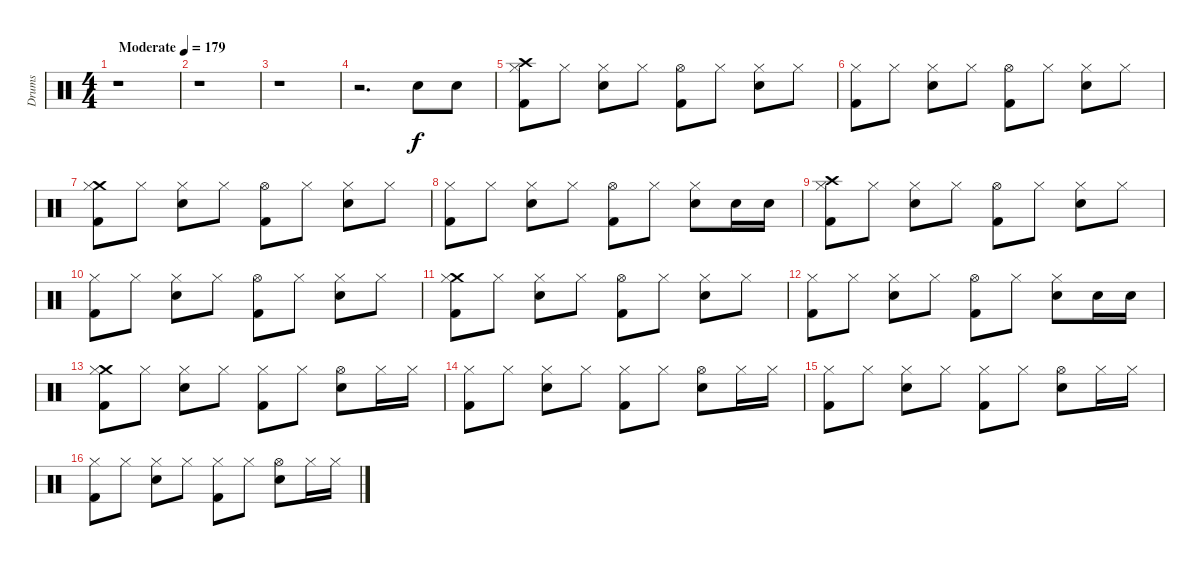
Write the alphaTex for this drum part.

\track ("Drums" "Drums") {instrument percussion}
\staff {score}
\articulation defaults
\ts (4 4)
\tempo (179 "Moderate")
\clef neutral
\ks c
r.1{dy f} |
r.1 |
r.1 |
r.2{d} "Electric Snare (hit)".8 "Electric Snare (hit)".8 |
("Kick (hit) 2" "Crash high (hit)" "Hi-Hat (closed)").8 "Hi-Hat (closed)".8 ("Electric Snare (hit)" "Hi-Hat (closed)").8 "Hi-Hat (closed)".8 ("Kick (hit) 2" "Hi-Hat (open)").8 "Hi-Hat (closed)".8 ("Electric Snare (hit)" "Hi-Hat (closed)").8 "Hi-Hat (closed)".8 |
("Kick (hit) 2" "Hi-Hat (closed)").8 "Hi-Hat (closed)".8 ("Electric Snare (hit)" "Hi-Hat (closed)").8 "Hi-Hat (closed)".8 ("Kick (hit) 2" "Hi-Hat (open)").8 "Hi-Hat (closed)".8 ("Electric Snare (hit)" "Hi-Hat (closed)").8 "Hi-Hat (closed)".8 |
("Kick (hit) 2" "Crash medium (hit)" "Hi-Hat (closed)").8 "Hi-Hat (closed)".8 ("Electric Snare (hit)" "Hi-Hat (closed)").8 "Hi-Hat (closed)".8 ("Kick (hit) 2" "Hi-Hat (open)").8 "Hi-Hat (closed)".8 ("Electric Snare (hit)" "Hi-Hat (closed)").8 "Hi-Hat (closed)".8 |
("Kick (hit) 2" "Hi-Hat (closed)").8 "Hi-Hat (closed)".8 ("Electric Snare (hit)" "Hi-Hat (closed)").8 "Hi-Hat (closed)".8 ("Kick (hit) 2" "Hi-Hat (open)").8 "Hi-Hat (closed)".8 ("Electric Snare (hit)" "Hi-Hat (closed)").8 "Electric Snare (hit)".16 "Electric Snare (hit)".16 |
("Kick (hit) 2" "Crash high (hit)" "Hi-Hat (closed)").8 "Hi-Hat (closed)".8 ("Electric Snare (hit)" "Hi-Hat (closed)").8 "Hi-Hat (closed)".8 ("Kick (hit) 2" "Hi-Hat (open)").8 "Hi-Hat (closed)".8 ("Electric Snare (hit)" "Hi-Hat (closed)").8 "Hi-Hat (closed)".8 |
("Kick (hit) 2" "Hi-Hat (closed)").8 "Hi-Hat (closed)".8 ("Electric Snare (hit)" "Hi-Hat (closed)").8 "Hi-Hat (closed)".8 ("Kick (hit) 2" "Hi-Hat (open)").8 "Hi-Hat (closed)".8 ("Electric Snare (hit)" "Hi-Hat (closed)").8 "Hi-Hat (closed)".8 |
("Kick (hit) 2" "Crash medium (hit)" "Hi-Hat (closed)").8 "Hi-Hat (closed)".8 ("Electric Snare (hit)" "Hi-Hat (closed)").8 "Hi-Hat (closed)".8 ("Kick (hit) 2" "Hi-Hat (open)").8 "Hi-Hat (closed)".8 ("Electric Snare (hit)" "Hi-Hat (closed)").8 "Hi-Hat (closed)".8 |
("Kick (hit) 2" "Hi-Hat (closed)").8 "Hi-Hat (closed)".8 ("Electric Snare (hit)" "Hi-Hat (closed)").8 "Hi-Hat (closed)".8 ("Kick (hit) 2" "Hi-Hat (open)").8 "Hi-Hat (closed)".8 ("Electric Snare (hit)" "Hi-Hat (closed)").8 "Electric Snare (hit)".16 "Electric Snare (hit)".16 |
("Crash medium (hit)" "Hi-Hat (closed)" "Kick (hit) 2").8 "Hi-Hat (closed)".8 ("Hi-Hat (closed)" "Electric Snare (hit)").8 "Hi-Hat (closed)".8 ("Hi-Hat (closed)" "Kick (hit) 2").8 "Hi-Hat (closed)".8 ("Hi-Hat (open)" "Electric Snare (hit)").8 "Hi-Hat (closed)".16 "Hi-Hat (closed)".16 |
("Hi-Hat (closed)" "Kick (hit) 2").8 "Hi-Hat (closed)".8 ("Hi-Hat (closed)" "Electric Snare (hit)").8 "Hi-Hat (closed)".8 ("Hi-Hat (closed)" "Kick (hit) 2").8 "Hi-Hat (closed)".8 ("Hi-Hat (open)" "Electric Snare (hit)").8 "Hi-Hat (closed)".16 "Hi-Hat (closed)".16 |
("Hi-Hat (closed)" "Kick (hit) 2").8 "Hi-Hat (closed)".8 ("Hi-Hat (closed)" "Electric Snare (hit)").8 "Hi-Hat (closed)".8 ("Hi-Hat (closed)" "Kick (hit) 2").8 "Hi-Hat (closed)".8 ("Hi-Hat (open)" "Electric Snare (hit)").8 "Hi-Hat (closed)".16 "Hi-Hat (closed)".16 |
("Hi-Hat (closed)" "Kick (hit) 2").8 "Hi-Hat (closed)".8 ("Hi-Hat (closed)" "Electric Snare (hit)").8 "Hi-Hat (closed)".8 ("Hi-Hat (closed)" "Kick (hit) 2").8 "Hi-Hat (closed)".8 ("Hi-Hat (open)" "Electric Snare (hit)").8 "Hi-Hat (closed)".16 "Hi-Hat (closed)".16
